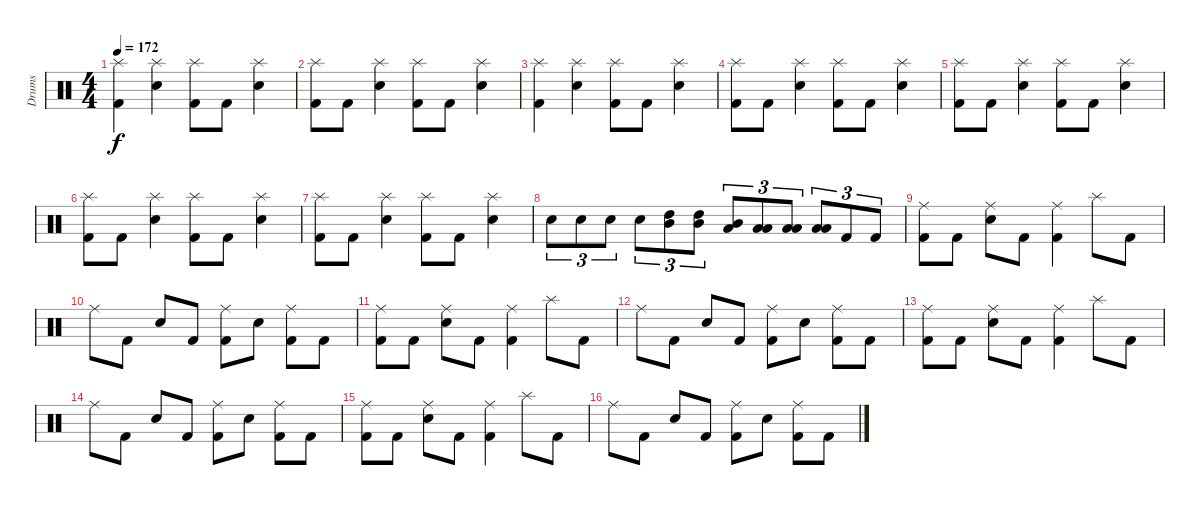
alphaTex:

\track ("Drums" "Drums") {instrument percussion}
\staff {score}
\articulation defaults
\ts (4 4)
\tempo 172
\clef neutral
\ks c
("Splash (hit)" "Kick (hit) 2").4{dy f} ("Splash (hit)" "Electric Snare (hit)").4 ("Splash (hit)" "Kick (hit) 2").8 "Kick (hit) 2".8 ("Splash (hit)" "Electric Snare (hit)").4 |
("Splash (hit)" "Kick (hit) 2").8 "Kick (hit) 2".8 ("Splash (hit)" "Electric Snare (hit)").4 ("Splash (hit)" "Kick (hit) 2").8 "Kick (hit) 2".8 ("Splash (hit)" "Electric Snare (hit)").4 |
("Splash (hit)" "Kick (hit) 2").4 ("Splash (hit)" "Electric Snare (hit)").4 ("Splash (hit)" "Kick (hit) 2").8 "Kick (hit) 2".8 ("Splash (hit)" "Electric Snare (hit)").4 |
("Splash (hit)" "Kick (hit) 2").8 "Kick (hit) 2".8 ("Splash (hit)" "Electric Snare (hit)").4 ("Splash (hit)" "Kick (hit) 2").8 "Kick (hit) 2".8 ("Splash (hit)" "Electric Snare (hit)").4 |
("Splash (hit)" "Kick (hit) 2").8 "Kick (hit) 2".8 ("Splash (hit)" "Electric Snare (hit)").4 ("Splash (hit)" "Kick (hit) 2").8 "Kick (hit) 2".8 ("Splash (hit)" "Electric Snare (hit)").4 |
("Splash (hit)" "Kick (hit) 2").8 "Kick (hit) 2".8 ("Splash (hit)" "Electric Snare (hit)").4 ("Splash (hit)" "Kick (hit) 2").8 "Kick (hit) 2".8 ("Splash (hit)" "Electric Snare (hit)").4 |
("Splash (hit)" "Kick (hit) 2").8 "Kick (hit) 2".8 ("Splash (hit)" "Electric Snare (hit)").4 ("Splash (hit)" "Kick (hit) 2").8 "Kick (hit) 2".8 ("Splash (hit)" "Electric Snare (hit)").4 |
"Electric Snare (hit)".8{tu (3 2)} "Electric Snare (hit)".8{tu (3 2)} "Electric Snare (hit)".8{tu (3 2)} "Electric Snare (hit)".8{tu (3 2)} ("High Tom (hit)" "Mid Tom (hit)").8{tu (3 2)} ("High Tom (hit)" "Mid Tom (hit)").8{tu (3 2)} ("Low Tom (hit)" "Mid Tom (hit)").8{tu (3 2)} ("Low Tom (hit)" "Low Tom (hit)").8{tu (3 2)} ("Low Tom (hit)" "Low Tom (hit)").8{tu (3 2)} ("Low Tom (hit)" "Low Tom (hit)").8{tu (3 2)} "Kick (hit) 2".8{tu (3 2)} "Kick (hit) 2".8{tu (3 2)} |
("Ride (middle)" "Kick (hit) 2").8 "Kick (hit) 2".8 ("Ride (middle)" "Electric Snare (hit)").8 "Kick (hit) 2".8 ("Ride (middle)" "Kick (hit) 2").4 "Splash (hit)".8 "Kick (hit) 2".8 |
"Ride (middle)".8 "Kick (hit) 2".8 "Electric Snare (hit)".8 "Kick (hit) 2".8 ("Ride (middle)" "Kick (hit) 2").8 "Electric Snare (hit)".8 ("Ride (middle)" "Kick (hit) 2").8 "Kick (hit) 2".8 |
("Ride (middle)" "Kick (hit) 2").8 "Kick (hit) 2".8 ("Ride (middle)" "Electric Snare (hit)").8 "Kick (hit) 2".8 ("Ride (middle)" "Kick (hit) 2").4 "Splash (hit)".8 "Kick (hit) 2".8 |
"Ride (middle)".8 "Kick (hit) 2".8 "Electric Snare (hit)".8 "Kick (hit) 2".8 ("Ride (middle)" "Kick (hit) 2").8 "Electric Snare (hit)".8 ("Ride (middle)" "Kick (hit) 2").8 "Kick (hit) 2".8 |
("Ride (middle)" "Kick (hit) 2").8 "Kick (hit) 2".8 ("Ride (middle)" "Electric Snare (hit)").8 "Kick (hit) 2".8 ("Ride (middle)" "Kick (hit) 2").4 "Splash (hit)".8 "Kick (hit) 2".8 |
"Ride (middle)".8 "Kick (hit) 2".8 "Electric Snare (hit)".8 "Kick (hit) 2".8 ("Ride (middle)" "Kick (hit) 2").8 "Electric Snare (hit)".8 ("Ride (middle)" "Kick (hit) 2").8 "Kick (hit) 2".8 |
("Ride (middle)" "Kick (hit) 2").8 "Kick (hit) 2".8 ("Ride (middle)" "Electric Snare (hit)").8 "Kick (hit) 2".8 ("Ride (middle)" "Kick (hit) 2").4 "Splash (hit)".8 "Kick (hit) 2".8 |
"Ride (middle)".8 "Kick (hit) 2".8 "Electric Snare (hit)".8 "Kick (hit) 2".8 ("Ride (middle)" "Kick (hit) 2").8 "Electric Snare (hit)".8 ("Ride (middle)" "Kick (hit) 2").8 "Kick (hit) 2".8
